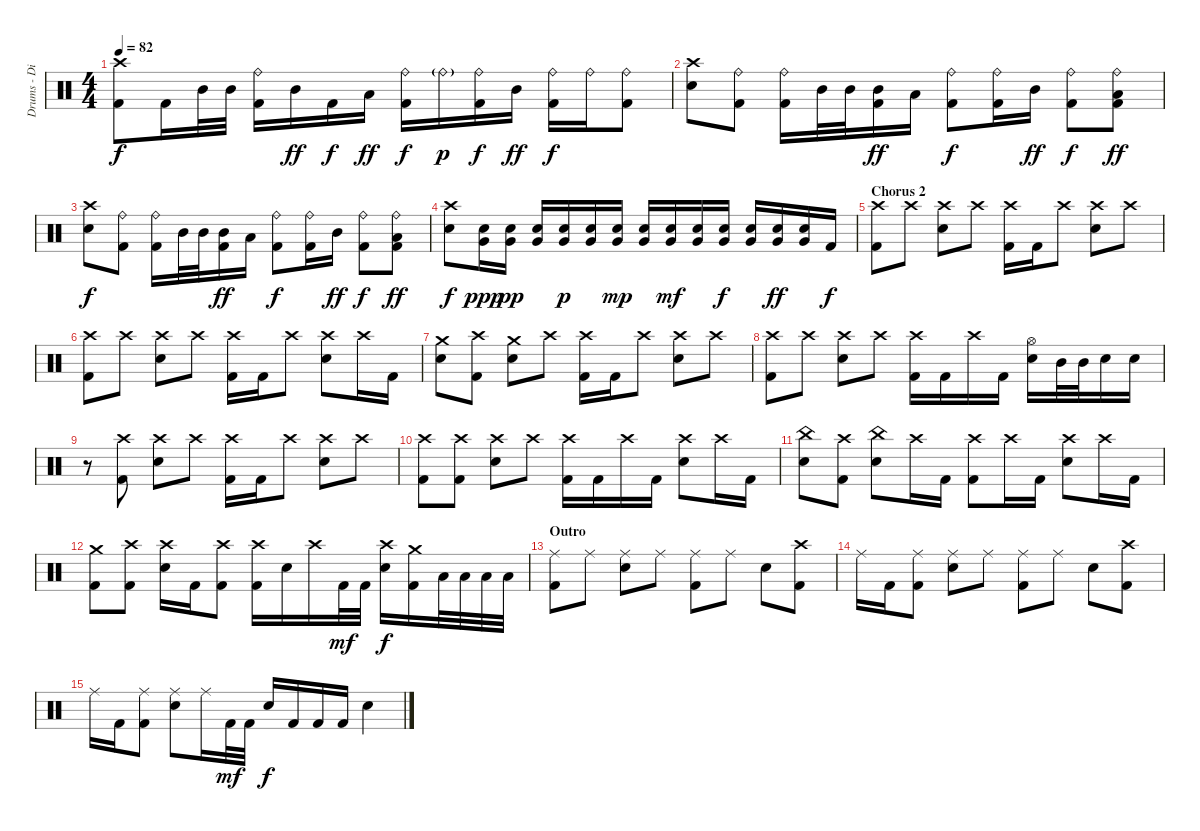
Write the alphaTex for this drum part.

\track ("Drums - Dino Campanella" "Drums - Di") {instrument percussion}
\staff {score}
\articulation defaults
\ts (4 4)
\tempo 82
\clef neutral
\ks c
("Crash high (hit)" "Kick (hit) 2").8{dy f} "Kick (hit) 2".16 "Mid Tom (hit)".32 "Mid Tom (hit)".32 ("Ride (bell)" "Kick (hit) 2").16 "Mid Tom (hit)".16{dy ff} "Kick (hit) 2".16{dy f} "Low Tom (hit)".16{dy ff} ("Ride (bell)" "Kick (hit) 2").16{dy f} "Ride (bell)"{g}.16{dy p} ("Ride (bell)" "Kick (hit) 2").16{dy f} "Mid Tom (hit)".16{dy ff} ("Ride (bell)" "Kick (hit) 2").16{dy f} "Ride (bell)".16 ("Ride (bell)" "Kick (hit) 2").8 |
("Crash high (hit)" "Electric Snare (hit)").8 ("Ride (bell)" "Kick (hit) 2").8 ("Ride (bell)" "Kick (hit) 2").16 "Mid Tom (hit)".32 "Mid Tom (hit)".32 ("Mid Tom (hit)" "Kick (hit) 2").16{dy ff} "Low Tom (hit)".16 ("Ride (bell)" "Kick (hit) 2").8{dy f} ("Ride (bell)" "Kick (hit) 2").16 "Mid Tom (hit)".16{dy ff} ("Ride (bell)" "Kick (hit) 2").8{dy f} ("Ride (bell)" "Low Tom (hit)" "Kick (hit) 2").8{dy ff} |
("Crash high (hit)" "Electric Snare (hit)").8{dy f} ("Ride (bell)" "Kick (hit) 2").8 ("Ride (bell)" "Kick (hit) 2").16 "Mid Tom (hit)".32 "Mid Tom (hit)".32 ("Mid Tom (hit)" "Kick (hit) 2").16{dy ff} "Low Tom (hit)".16 ("Ride (bell)" "Kick (hit) 2").8{dy f} ("Ride (bell)" "Kick (hit) 2").16 "Mid Tom (hit)".16{dy ff} ("Ride (bell)" "Kick (hit) 2").8{dy f} ("Ride (bell)" "Low Tom (hit)" "Kick (hit) 2").8{dy ff} |
("Crash high (hit)" "Electric Snare (hit)").8{dy f} ("Electric Snare (hit)" "Very Low Tom (hit)").16{dy ppp} ("Electric Snare (hit)" "Very Low Tom (hit)").16{dy pp} ("Electric Snare (hit)" "Very Low Tom (hit)").16 ("Electric Snare (hit)" "Very Low Tom (hit)").16{dy p} ("Electric Snare (hit)" "Very Low Tom (hit)").16 ("Electric Snare (hit)" "Very Low Tom (hit)").16{dy mp} ("Electric Snare (hit)" "Very Low Tom (hit)").16 ("Electric Snare (hit)" "Very Low Tom (hit)").16{dy mf} ("Electric Snare (hit)" "Very Low Tom (hit)").16 ("Electric Snare (hit)" "Very Low Tom (hit)").16{dy f} ("Electric Snare (hit)" "Very Low Tom (hit)").16 ("Electric Snare (hit)" "Very Low Tom (hit)").16{dy ff} ("Electric Snare (hit)" "Very Low Tom (hit)").16 "Kick (hit) 2".16{dy f} |
\section ("" "Chorus 2")
("Crash high (hit)" "Kick (hit) 2").8 "Crash high (hit)".8 ("Crash high (hit)" "Electric Snare (hit)").8 "Crash high (hit)".8 ("Crash high (hit)" "Kick (hit) 2").16 "Kick (hit) 2".16 "Crash high (hit)".8 ("Crash high (hit)" "Electric Snare (hit)").8 "Crash high (hit)".8 |
("Crash high (hit)" "Kick (hit) 2").8 "Crash high (hit)".8 ("Crash high (hit)" "Electric Snare (hit)").8 "Crash high (hit)".8 ("Crash high (hit)" "Kick (hit) 2").16 "Kick (hit) 2".16 "Crash high (hit)".8 ("Crash high (hit)" "Electric Snare (hit)").8 "Crash high (hit)".16 "Kick (hit) 2".16 |
("Crash medium (hit)" "Electric Snare (hit)").8 ("Crash high (hit)" "Kick (hit) 2").8 ("Crash medium (hit)" "Electric Snare (hit)").8 "Crash high (hit)".8 ("Crash high (hit)" "Kick (hit) 2").16 "Kick (hit) 2".16 "Crash high (hit)".8 ("Crash high (hit)" "Electric Snare (hit)").8 "Crash high (hit)".8 |
("Crash high (hit)" "Kick (hit) 2").8 "Crash high (hit)".8 ("Crash high (hit)" "Electric Snare (hit)").8 "Crash high (hit)".8 ("Crash high (hit)" "Kick (hit) 2").16 "Kick (hit) 2".16 "Crash high (hit)".16 "Kick (hit) 2".16 ("Hi-Hat (open)" "Electric Snare (hit)").16 "Mid Tom (hit)".32 "Mid Tom (hit)".32 "Electric Snare (hit)".16 "Electric Snare (hit)".16 |
r.8 ("Crash high (hit)" "Kick (hit) 2").8 ("Crash high (hit)" "Electric Snare (hit)").8 "Crash high (hit)".8 ("Crash high (hit)" "Kick (hit) 2").16 "Kick (hit) 2".16 "Crash high (hit)".8 ("Crash high (hit)" "Electric Snare (hit)").8 "Crash high (hit)".8 |
("Crash high (hit)" "Kick (hit) 2").8 ("Crash high (hit)" "Kick (hit) 2").8 ("Crash high (hit)" "Electric Snare (hit)").8 "Crash high (hit)".8 ("Crash high (hit)" "Kick (hit) 2").16 "Kick (hit) 2".16 "Crash high (hit)".16 "Kick (hit) 2".16 ("Crash high (hit)" "Electric Snare (hit)").8 "Crash high (hit)".16 "Kick (hit) 2".16 |
("China (hit)" "Electric Snare (hit)").8 ("Crash high (hit)" "Kick (hit) 2").8 ("China (hit)" "Electric Snare (hit)").8 "Crash high (hit)".16 "Kick (hit) 2".16 ("Crash high (hit)" "Kick (hit) 2").8 "Crash high (hit)".16 "Kick (hit) 2".16 ("Crash high (hit)" "Electric Snare (hit)").8 "Crash high (hit)".16 "Kick (hit) 2".16 |
("Crash medium (hit)" "Kick (hit) 2").8 ("Crash high (hit)" "Kick (hit) 2").8 ("Crash high (hit)" "Electric Snare (hit)").16 "Kick (hit) 2".16 ("Crash high (hit)" "Kick (hit) 2").8 ("Crash high (hit)" "Kick (hit) 2").16 "Electric Snare (hit)".16 "Crash high (hit)".16 "Kick (hit) 2".32{dy mf} "Kick (hit) 2".32 ("Crash high (hit)" "Electric Snare (hit)").16{dy f} ("Crash medium (hit)" "Kick (hit) 2").16 "Low Tom (hit)".32 "Low Tom (hit)".32 "Low Tom (hit)".32 "Low Tom (hit)".32 |
\section ("" "Outro")
("Ride (middle)" "Kick (hit) 2").8 "Ride (middle)".8 ("Ride (middle)" "Electric Snare (hit)").8 "Ride (middle)".8 ("Ride (middle)" "Kick (hit) 2").8 "Ride (middle)".8 "Electric Snare (hit)".8 ("Crash high (hit)" "Kick (hit) 2").8 |
"Ride (middle)".16 "Kick (hit) 2".16 ("Ride (middle)" "Kick (hit) 2").8 ("Ride (middle)" "Electric Snare (hit)").8 "Ride (middle)".8 ("Ride (middle)" "Kick (hit) 2").8 "Ride (middle)".8 "Electric Snare (hit)".8 ("Crash high (hit)" "Kick (hit) 2").8 |
"Ride (middle)".16 "Kick (hit) 2".16 ("Ride (middle)" "Kick (hit) 2").8 ("Ride (middle)" "Electric Snare (hit)").8 "Ride (middle)".16 "Kick (hit) 2".32{dy mf} "Kick (hit) 2".32 "Electric Snare (hit)".16{dy f} "Kick (hit) 2".16 "Kick (hit) 2".16 "Kick (hit) 2".16 "Electric Snare (hit)".4
